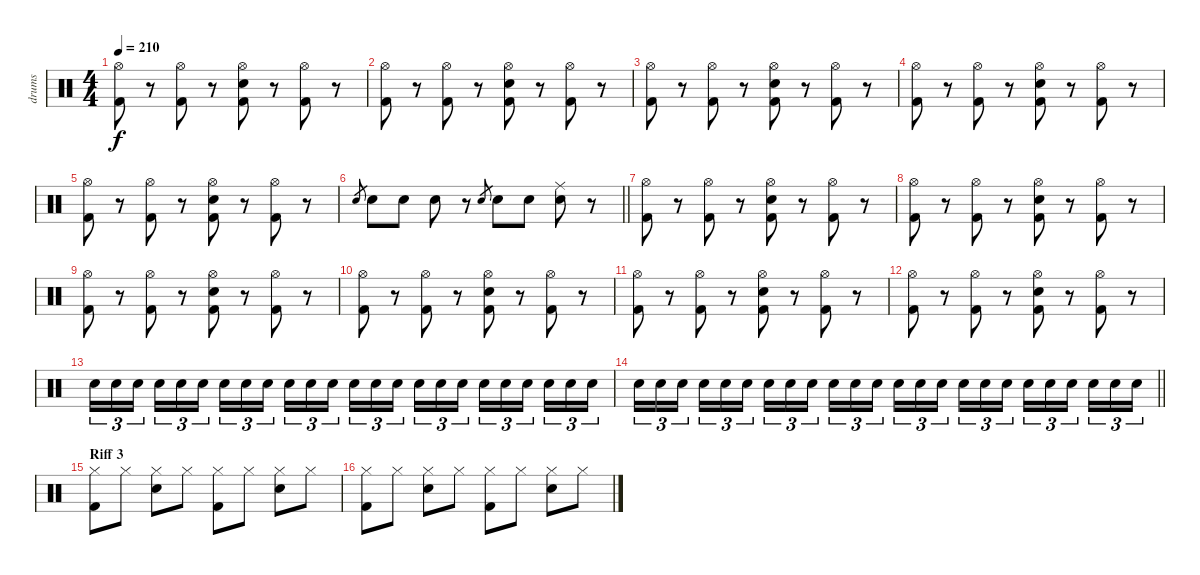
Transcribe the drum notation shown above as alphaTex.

\track ("drums" "drums") {instrument percussion}
\staff {score}
\articulation defaults
\ts (4 4)
\tempo 210
\clef neutral
\ks c
("Hi-Hat (open)" "Kick (hit) 2").8{dy f} r.8 ("Hi-Hat (open)" "Kick (hit) 2").8 r.8 ("Hi-Hat (open)" "Electric Snare (hit)" "Kick (hit) 2").8 r.8 ("Hi-Hat (open)" "Kick (hit) 2").8 r.8 |
("Hi-Hat (open)" "Kick (hit) 2").8 r.8 ("Hi-Hat (open)" "Kick (hit) 2").8 r.8 ("Hi-Hat (open)" "Electric Snare (hit)" "Kick (hit) 2").8 r.8 ("Hi-Hat (open)" "Kick (hit) 2").8 r.8 |
("Hi-Hat (open)" "Kick (hit) 2").8 r.8 ("Hi-Hat (open)" "Kick (hit) 2").8 r.8 ("Hi-Hat (open)" "Electric Snare (hit)" "Kick (hit) 2").8 r.8 ("Hi-Hat (open)" "Kick (hit) 2").8 r.8 |
("Hi-Hat (open)" "Kick (hit) 2").8 r.8 ("Hi-Hat (open)" "Kick (hit) 2").8 r.8 ("Hi-Hat (open)" "Electric Snare (hit)" "Kick (hit) 2").8 r.8 ("Hi-Hat (open)" "Kick (hit) 2").8 r.8 |
("Hi-Hat (open)" "Kick (hit) 2").8 r.8 ("Hi-Hat (open)" "Kick (hit) 2").8 r.8 ("Hi-Hat (open)" "Electric Snare (hit)" "Kick (hit) 2").8 r.8 ("Hi-Hat (open)" "Kick (hit) 2").8 r.8 |
\barLineRight lightlight "Electric Snare (hit)".8{gr} "Electric Snare (hit)".8 "Electric Snare (hit)".8 "Electric Snare (hit)".8
r.8 "Electric Snare (hit)".8{gr} "Electric Snare (hit)".8 "Electric Snare (hit)".8 ("Ride (middle)" "Electric Snare (hit)").8 r.8 |
("Hi-Hat (open)" "Kick (hit) 2").8 r.8 ("Hi-Hat (open)" "Kick (hit) 2").8 r.8 ("Hi-Hat (open)" "Electric Snare (hit)" "Kick (hit) 2").8 r.8 ("Hi-Hat (open)" "Kick (hit) 2").8 r.8 |
("Hi-Hat (open)" "Kick (hit) 2").8 r.8 ("Hi-Hat (open)" "Kick (hit) 2").8 r.8 ("Hi-Hat (open)" "Electric Snare (hit)" "Kick (hit) 2").8 r.8 ("Hi-Hat (open)" "Kick (hit) 2").8 r.8 |
("Hi-Hat (open)" "Kick (hit) 2").8 r.8 ("Hi-Hat (open)" "Kick (hit) 2").8 r.8 ("Hi-Hat (open)" "Electric Snare (hit)" "Kick (hit) 2").8 r.8 ("Hi-Hat (open)" "Kick (hit) 2").8 r.8 |
("Hi-Hat (open)" "Kick (hit) 2").8 r.8 ("Hi-Hat (open)" "Kick (hit) 2").8 r.8 ("Hi-Hat (open)" "Electric Snare (hit)" "Kick (hit) 2").8 r.8 ("Hi-Hat (open)" "Kick (hit) 2").8 r.8 |
("Hi-Hat (open)" "Kick (hit) 2").8 r.8 ("Hi-Hat (open)" "Kick (hit) 2").8 r.8 ("Hi-Hat (open)" "Electric Snare (hit)" "Kick (hit) 2").8 r.8 ("Hi-Hat (open)" "Kick (hit) 2").8 r.8 |
("Hi-Hat (open)" "Kick (hit) 2").8 r.8 ("Hi-Hat (open)" "Kick (hit) 2").8 r.8 ("Hi-Hat (open)" "Electric Snare (hit)" "Kick (hit) 2").8 r.8 ("Hi-Hat (open)" "Kick (hit) 2").8 r.8{volume 6} |
"Electric Snare (hit)".16{tu (3 2) volume 16} "Electric Snare (hit)".16{tu (3 2)} "Electric Snare (hit)".16{tu (3 2) beam splitsecondary} "Electric Snare (hit)".16{tu (3 2)} "Electric Snare (hit)".16{tu (3 2)} "Electric Snare (hit)".16{tu (3 2)} "Electric Snare (hit)".16{tu (3 2)} "Electric Snare (hit)".16{tu (3 2)} "Electric Snare (hit)".16{tu (3 2) beam splitsecondary} "Electric Snare (hit)".16{tu (3 2)} "Electric Snare (hit)".16{tu (3 2)} "Electric Snare (hit)".16{tu (3 2)} "Electric Snare (hit)".16{tu (3 2)} "Electric Snare (hit)".16{tu (3 2)} "Electric Snare (hit)".16{tu (3 2) beam splitsecondary} "Electric Snare (hit)".16{tu (3 2)} "Electric Snare (hit)".16{tu (3 2)} "Electric Snare (hit)".16{tu (3 2)} "Electric Snare (hit)".16{tu (3 2)} "Electric Snare (hit)".16{tu (3 2)} "Electric Snare (hit)".16{tu (3 2) beam splitsecondary} "Electric Snare (hit)".16{tu (3 2)} "Electric Snare (hit)".16{tu (3 2)} "Electric Snare (hit)".16{tu (3 2)} |
\barLineRight lightlight "Electric Snare (hit)".16{tu (3 2)} "Electric Snare (hit)".16{tu (3 2)} "Electric Snare (hit)".16{tu (3 2) beam splitsecondary} "Electric Snare (hit)".16{tu (3 2)} "Electric Snare (hit)".16{tu (3 2)} "Electric Snare (hit)".16{tu (3 2)} "Electric Snare (hit)".16{tu (3 2)} "Electric Snare (hit)".16{tu (3 2)} "Electric Snare (hit)".16{tu (3 2) beam splitsecondary} "Electric Snare (hit)".16{tu (3 2)} "Electric Snare (hit)".16{tu (3 2)} "Electric Snare (hit)".16{tu (3 2)} "Electric Snare (hit)".16{tu (3 2)} "Electric Snare (hit)".16{tu (3 2)} "Electric Snare (hit)".16{tu (3 2) beam splitsecondary} "Electric Snare (hit)".16{tu (3 2)} "Electric Snare (hit)".16{tu (3 2)} "Electric Snare (hit)".16{tu (3 2)} "Electric Snare (hit)".16{tu (3 2)} "Electric Snare (hit)".16{tu (3 2)} "Electric Snare (hit)".16{tu (3 2) beam splitsecondary} "Electric Snare (hit)".16{tu (3 2)} "Electric Snare (hit)".16{tu (3 2)} "Electric Snare (hit)".16{tu (3 2)}
|
\section ("" "Riff 3")
("Hi-Hat (closed)" "Kick (hit) 2").8 "Hi-Hat (closed)".8 ("Hi-Hat (closed)" "Electric Snare (hit)").8 "Hi-Hat (closed)".8 ("Hi-Hat (closed)" "Kick (hit) 2").8 "Hi-Hat (closed)".8 ("Hi-Hat (closed)" "Electric Snare (hit)").8 "Hi-Hat (closed)".8 |
("Hi-Hat (closed)" "Kick (hit) 2").8 "Hi-Hat (closed)".8 ("Hi-Hat (closed)" "Electric Snare (hit)").8 "Hi-Hat (closed)".8 ("Hi-Hat (closed)" "Kick (hit) 2").8 "Hi-Hat (closed)".8 ("Hi-Hat (closed)" "Electric Snare (hit)").8 "Hi-Hat (closed)".8
